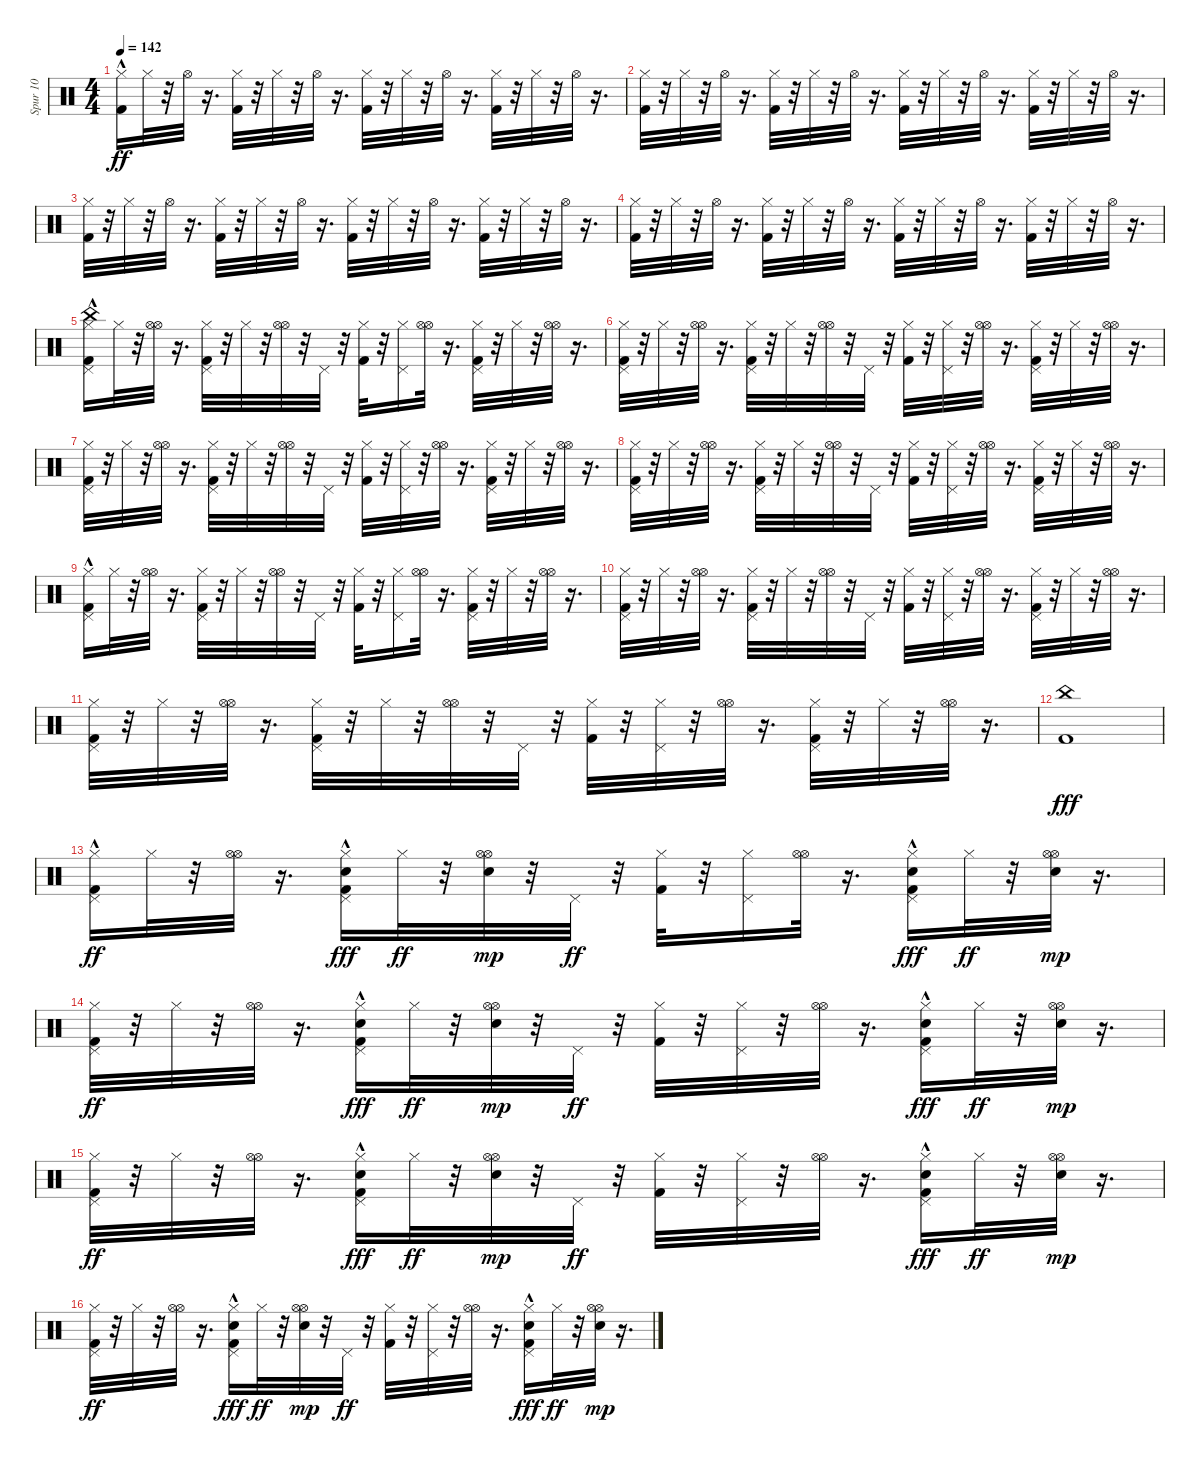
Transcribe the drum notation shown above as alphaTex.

\track ("Spur 10" "Spur 10") {instrument percussion}
\staff {score}
\articulation defaults
\ts (4 4)
\tempo 142
\clef neutral
\ks c
("Kick (hit) 2"{hac} "Hi-Hat (closed)").16{dy ff} "Hi-Hat (closed)".32 r.32 "Hi-Hat (open)".32 r.16{d} ("Kick (hit) 2" "Hi-Hat (closed)").32 r.32 "Hi-Hat (closed)".32 r.32 "Hi-Hat (open)".32 r.16{d} ("Kick (hit) 2" "Hi-Hat (closed)").32 r.32 "Hi-Hat (closed)".32 r.32 "Hi-Hat (open)".32 r.16{d} ("Kick (hit) 2" "Hi-Hat (closed)").32 r.32 "Hi-Hat (closed)".32 r.32 "Hi-Hat (open)".32 r.16{d} |
("Kick (hit) 2" "Hi-Hat (closed)").32 r.32 "Hi-Hat (closed)".32 r.32 "Hi-Hat (open)".32 r.16{d} ("Kick (hit) 2" "Hi-Hat (closed)").32 r.32 "Hi-Hat (closed)".32 r.32 "Hi-Hat (open)".32 r.16{d} ("Kick (hit) 2" "Hi-Hat (closed)").32 r.32 "Hi-Hat (closed)".32 r.32 "Hi-Hat (open)".32 r.16{d} ("Kick (hit) 2" "Hi-Hat (closed)").32 r.32 "Hi-Hat (closed)".32 r.32 "Hi-Hat (open)".32 r.16{d} |
("Kick (hit) 2" "Hi-Hat (closed)").32 r.32 "Hi-Hat (closed)".32 r.32 "Hi-Hat (open)".32 r.16{d} ("Kick (hit) 2" "Hi-Hat (closed)").32 r.32 "Hi-Hat (closed)".32 r.32 "Hi-Hat (open)".32 r.16{d} ("Kick (hit) 2" "Hi-Hat (closed)").32 r.32 "Hi-Hat (closed)".32 r.32 "Hi-Hat (open)".32 r.16{d} ("Kick (hit) 2" "Hi-Hat (closed)").32 r.32 "Hi-Hat (closed)".32 r.32 "Hi-Hat (open)".32 r.16{d} |
("Kick (hit) 2" "Hi-Hat (closed)").32 r.32 "Hi-Hat (closed)".32 r.32 "Hi-Hat (open)".32 r.16{d} ("Kick (hit) 2" "Hi-Hat (closed)").32 r.32 "Hi-Hat (closed)".32 r.32 "Hi-Hat (open)".32 r.16{d} ("Kick (hit) 2" "Hi-Hat (closed)").32 r.32 "Hi-Hat (closed)".32 r.32 "Hi-Hat (open)".32 r.16{d} ("Kick (hit) 2" "Hi-Hat (closed)").32 r.32 "Hi-Hat (closed)".32 r.32 "Hi-Hat (open)".32 r.16{d} |
("Kick (hit) 2"{hac} "Hi-Hat (closed)" "Pedal Hi-Hat (hit)" "China (hit)").16 "Hi-Hat (closed)".32 r.32 ("Hi-Hat (open)" "Hi-Hat (open)").32 r.16{d} ("Kick (hit) 2" "Hi-Hat (closed)" "Pedal Hi-Hat (hit)").32 r.32 "Hi-Hat (closed)".32 r.32 ("Hi-Hat (open)" "Hi-Hat (open)").32 r.32 "Pedal Hi-Hat (hit)".32 r.32 ("Kick (hit) 2" "Hi-Hat (closed)").32 r.32 ("Hi-Hat (closed)" "Pedal Hi-Hat (hit)").16 ("Hi-Hat (open)" "Hi-Hat (open)").32 r.16{d} ("Kick (hit) 2" "Hi-Hat (closed)" "Pedal Hi-Hat (hit)").32 r.32 "Hi-Hat (closed)".32 r.32 ("Hi-Hat (open)" "Hi-Hat (open)").32 r.16{d} |
("Kick (hit) 2" "Hi-Hat (closed)" "Pedal Hi-Hat (hit)").32 r.32 "Hi-Hat (closed)".32 r.32 ("Hi-Hat (open)" "Hi-Hat (open)").32 r.16{d} ("Kick (hit) 2" "Hi-Hat (closed)" "Pedal Hi-Hat (hit)").32 r.32 "Hi-Hat (closed)".32 r.32 ("Hi-Hat (open)" "Hi-Hat (open)").32 r.32 "Pedal Hi-Hat (hit)".32 r.32 ("Kick (hit) 2" "Hi-Hat (closed)").32 r.32 ("Hi-Hat (closed)" "Pedal Hi-Hat (hit)").32 r.32 ("Hi-Hat (open)" "Hi-Hat (open)").32 r.16{d} ("Kick (hit) 2" "Hi-Hat (closed)" "Pedal Hi-Hat (hit)").32 r.32 "Hi-Hat (closed)".32 r.32 ("Hi-Hat (open)" "Hi-Hat (open)").32 r.16{d} |
("Kick (hit) 2" "Hi-Hat (closed)" "Pedal Hi-Hat (hit)").32 r.32 "Hi-Hat (closed)".32 r.32 ("Hi-Hat (open)" "Hi-Hat (open)").32 r.16{d} ("Kick (hit) 2" "Hi-Hat (closed)" "Pedal Hi-Hat (hit)").32 r.32 "Hi-Hat (closed)".32 r.32 ("Hi-Hat (open)" "Hi-Hat (open)").32 r.32 "Pedal Hi-Hat (hit)".32 r.32 ("Kick (hit) 2" "Hi-Hat (closed)").32 r.32 ("Hi-Hat (closed)" "Pedal Hi-Hat (hit)").32 r.32 ("Hi-Hat (open)" "Hi-Hat (open)").32 r.16{d} ("Kick (hit) 2" "Hi-Hat (closed)" "Pedal Hi-Hat (hit)").32 r.32 "Hi-Hat (closed)".32 r.32 ("Hi-Hat (open)" "Hi-Hat (open)").32 r.16{d} |
("Kick (hit) 2" "Hi-Hat (closed)" "Pedal Hi-Hat (hit)").32 r.32 "Hi-Hat (closed)".32 r.32 ("Hi-Hat (open)" "Hi-Hat (open)").32 r.16{d} ("Kick (hit) 2" "Hi-Hat (closed)" "Pedal Hi-Hat (hit)").32 r.32 "Hi-Hat (closed)".32 r.32 ("Hi-Hat (open)" "Hi-Hat (open)").32 r.32 "Pedal Hi-Hat (hit)".32 r.32 ("Kick (hit) 2" "Hi-Hat (closed)").32 r.32 ("Hi-Hat (closed)" "Pedal Hi-Hat (hit)").32 r.32 ("Hi-Hat (open)" "Hi-Hat (open)").32 r.16{d} ("Kick (hit) 2" "Hi-Hat (closed)" "Pedal Hi-Hat (hit)").32 r.32 "Hi-Hat (closed)".32 r.32 ("Hi-Hat (open)" "Hi-Hat (open)").32 r.16{d} |
("Kick (hit) 2"{hac} "Hi-Hat (closed)" "Pedal Hi-Hat (hit)").16 "Hi-Hat (closed)".32 r.32 ("Hi-Hat (open)" "Hi-Hat (open)").32 r.16{d} ("Kick (hit) 2" "Hi-Hat (closed)" "Pedal Hi-Hat (hit)").32 r.32 "Hi-Hat (closed)".32 r.32 ("Hi-Hat (open)" "Hi-Hat (open)").32 r.32 "Pedal Hi-Hat (hit)".32 r.32 ("Kick (hit) 2" "Hi-Hat (closed)").32 r.32 ("Hi-Hat (closed)" "Pedal Hi-Hat (hit)").16 ("Hi-Hat (open)" "Hi-Hat (open)").32 r.16{d} ("Kick (hit) 2" "Hi-Hat (closed)" "Pedal Hi-Hat (hit)").32 r.32 "Hi-Hat (closed)".32 r.32 ("Hi-Hat (open)" "Hi-Hat (open)").32 r.16{d} |
("Kick (hit) 2" "Hi-Hat (closed)" "Pedal Hi-Hat (hit)").32 r.32 "Hi-Hat (closed)".32 r.32 ("Hi-Hat (open)" "Hi-Hat (open)").32 r.16{d} ("Kick (hit) 2" "Hi-Hat (closed)" "Pedal Hi-Hat (hit)").32 r.32 "Hi-Hat (closed)".32 r.32 ("Hi-Hat (open)" "Hi-Hat (open)").32 r.32 "Pedal Hi-Hat (hit)".32 r.32 ("Kick (hit) 2" "Hi-Hat (closed)").32 r.32 ("Hi-Hat (closed)" "Pedal Hi-Hat (hit)").32 r.32 ("Hi-Hat (open)" "Hi-Hat (open)").32 r.16{d} ("Kick (hit) 2" "Hi-Hat (closed)" "Pedal Hi-Hat (hit)").32 r.32 "Hi-Hat (closed)".32 r.32 ("Hi-Hat (open)" "Hi-Hat (open)").32 r.16{d} |
("Kick (hit) 2" "Hi-Hat (closed)" "Pedal Hi-Hat (hit)").32 r.32 "Hi-Hat (closed)".32 r.32 ("Hi-Hat (open)" "Hi-Hat (open)").32 r.16{d} ("Kick (hit) 2" "Hi-Hat (closed)" "Pedal Hi-Hat (hit)").32 r.32 "Hi-Hat (closed)".32 r.32 ("Hi-Hat (open)" "Hi-Hat (open)").32 r.32 "Pedal Hi-Hat (hit)".32 r.32 ("Kick (hit) 2" "Hi-Hat (closed)").32 r.32 ("Hi-Hat (closed)" "Pedal Hi-Hat (hit)").32 r.32 ("Hi-Hat (open)" "Hi-Hat (open)").32 r.16{d} ("Kick (hit) 2" "Hi-Hat (closed)" "Pedal Hi-Hat (hit)").32 r.32 "Hi-Hat (closed)".32 r.32 ("Hi-Hat (open)" "Hi-Hat (open)").32 r.16{d} |
("Kick (hit) 2" "China (hit)").1{dy fff} |
("Kick (hit) 2"{hac} "Hi-Hat (closed)" "Pedal Hi-Hat (hit)").16{dy ff} "Hi-Hat (closed)".32 r.32 ("Hi-Hat (open)" "Hi-Hat (open)").32 r.16{d} ("Kick (hit) 2" "Hi-Hat (closed)" "Pedal Hi-Hat (hit)" "Hand Clap (hit)"{hac}).16{dy fff balance 16} "Hi-Hat (closed)".32{dy ff} r.32 ("Hi-Hat (open)" "Hi-Hat (open)" "Hand Clap (hit)").32{dy mp balance 0} r.32 "Pedal Hi-Hat (hit)".32{dy ff} r.32 ("Kick (hit) 2" "Hi-Hat (closed)").32 r.32 ("Hi-Hat (closed)" "Pedal Hi-Hat (hit)").16 ("Hi-Hat (open)" "Hi-Hat (open)").32 r.16{d} ("Kick (hit) 2" "Hi-Hat (closed)" "Pedal Hi-Hat (hit)" "Hand Clap (hit)"{hac}).16{dy fff balance 16} "Hi-Hat (closed)".32{dy ff} r.32 ("Hi-Hat (open)" "Hi-Hat (open)" "Hand Clap (hit)").32{dy mp balance 0} r.16{d} |
("Kick (hit) 2" "Hi-Hat (closed)" "Pedal Hi-Hat (hit)").32{dy ff} r.32 "Hi-Hat (closed)".32 r.32 ("Hi-Hat (open)" "Hi-Hat (open)").32 r.16{d} ("Kick (hit) 2" "Hi-Hat (closed)" "Pedal Hi-Hat (hit)" "Hand Clap (hit)"{hac}).16{dy fff balance 16} "Hi-Hat (closed)".32{dy ff} r.32 ("Hi-Hat (open)" "Hi-Hat (open)" "Hand Clap (hit)").32{dy mp balance 0} r.32 "Pedal Hi-Hat (hit)".32{dy ff} r.32 ("Kick (hit) 2" "Hi-Hat (closed)").32 r.32 ("Hi-Hat (closed)" "Pedal Hi-Hat (hit)").32 r.32 ("Hi-Hat (open)" "Hi-Hat (open)").32 r.16{d} ("Kick (hit) 2" "Hi-Hat (closed)" "Pedal Hi-Hat (hit)" "Hand Clap (hit)"{hac}).16{dy fff balance 16} "Hi-Hat (closed)".32{dy ff} r.32 ("Hi-Hat (open)" "Hi-Hat (open)" "Hand Clap (hit)").32{dy mp balance 0} r.16{d} |
("Kick (hit) 2" "Hi-Hat (closed)" "Pedal Hi-Hat (hit)").32{dy ff} r.32 "Hi-Hat (closed)".32 r.32 ("Hi-Hat (open)" "Hi-Hat (open)").32 r.16{d} ("Kick (hit) 2" "Hi-Hat (closed)" "Pedal Hi-Hat (hit)" "Hand Clap (hit)"{hac}).16{dy fff balance 16} "Hi-Hat (closed)".32{dy ff} r.32 ("Hi-Hat (open)" "Hi-Hat (open)" "Hand Clap (hit)").32{dy mp balance 0} r.32 "Pedal Hi-Hat (hit)".32{dy ff} r.32 ("Kick (hit) 2" "Hi-Hat (closed)").32 r.32 ("Hi-Hat (closed)" "Pedal Hi-Hat (hit)").32 r.32 ("Hi-Hat (open)" "Hi-Hat (open)").32 r.16{d} ("Kick (hit) 2" "Hi-Hat (closed)" "Pedal Hi-Hat (hit)" "Hand Clap (hit)"{hac}).16{dy fff balance 16} "Hi-Hat (closed)".32{dy ff} r.32 ("Hi-Hat (open)" "Hi-Hat (open)" "Hand Clap (hit)").32{dy mp balance 0} r.16{d} |
("Kick (hit) 2" "Hi-Hat (closed)" "Pedal Hi-Hat (hit)").32{dy ff} r.32 "Hi-Hat (closed)".32 r.32 ("Hi-Hat (open)" "Hi-Hat (open)").32 r.16{d} ("Kick (hit) 2" "Hi-Hat (closed)" "Pedal Hi-Hat (hit)" "Hand Clap (hit)"{hac}).16{dy fff balance 16} "Hi-Hat (closed)".32{dy ff} r.32 ("Hi-Hat (open)" "Hi-Hat (open)" "Hand Clap (hit)").32{dy mp balance 0} r.32 "Pedal Hi-Hat (hit)".32{dy ff} r.32 ("Kick (hit) 2" "Hi-Hat (closed)").32 r.32 ("Hi-Hat (closed)" "Pedal Hi-Hat (hit)").32 r.32 ("Hi-Hat (open)" "Hi-Hat (open)").32 r.16{d} ("Kick (hit) 2" "Hi-Hat (closed)" "Pedal Hi-Hat (hit)" "Hand Clap (hit)"{hac}).16{dy fff balance 16} "Hi-Hat (closed)".32{dy ff} r.32 ("Hi-Hat (open)" "Hi-Hat (open)" "Hand Clap (hit)").32{dy mp balance 0} r.16{d}
